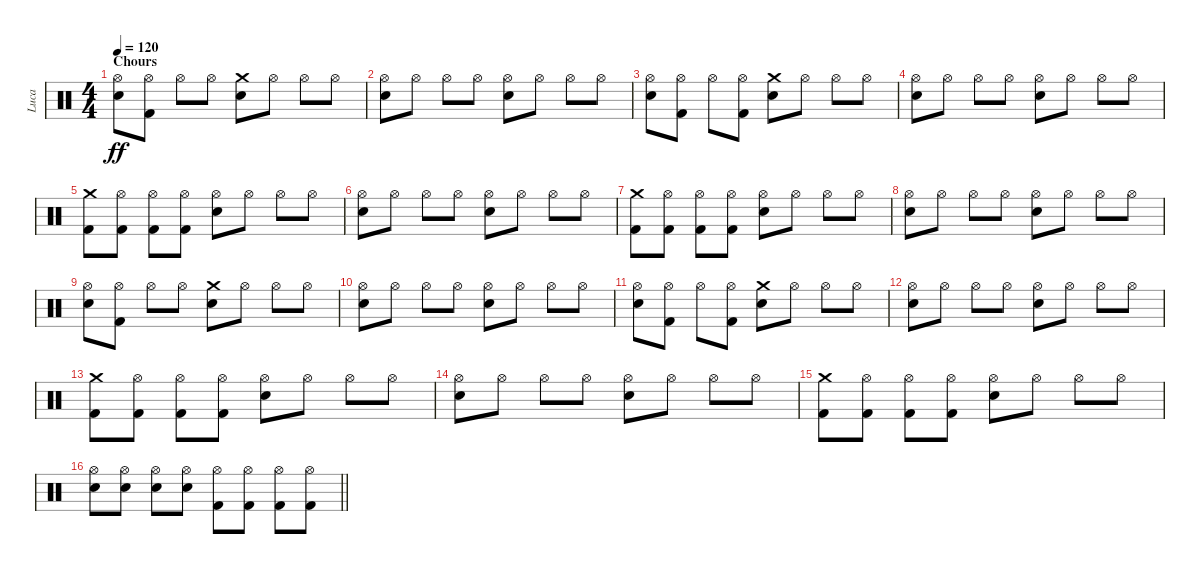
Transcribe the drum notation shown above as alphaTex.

\track ("Luca" "Luca") {instrument percussion}
\staff {score}
\articulation defaults
\ts (4 4)
\section ("" "Chours")
\tempo 120
\clef neutral
\ks c
("Hi-Hat (open)" "Snare (hit) 2").8{dy ff} ("Hi-Hat (open)" "Kick (hit) 2").8 "Hi-Hat (open)".8 "Hi-Hat (open)".8 ("Crash medium (hit)" "Snare (hit) 2").8 "Hi-Hat (open)".8 "Hi-Hat (open)".8 "Hi-Hat (open)".8 |
("Hi-Hat (open)" "Snare (hit) 2").8 "Hi-Hat (open)".8 "Hi-Hat (open)".8 "Hi-Hat (open)".8 ("Hi-Hat (open)" "Snare (hit) 2").8 "Hi-Hat (open)".8 "Hi-Hat (open)".8 "Hi-Hat (open)".8 |
("Hi-Hat (open)" "Snare (hit) 2").8 ("Hi-Hat (open)" "Kick (hit) 2").8 "Hi-Hat (open)".8 ("Hi-Hat (open)" "Kick (hit) 2").8 ("Crash medium (hit)" "Snare (hit) 2").8 "Hi-Hat (open)".8 "Hi-Hat (open)".8 "Hi-Hat (open)".8 |
("Hi-Hat (open)" "Snare (hit) 2").8 "Hi-Hat (open)".8 "Hi-Hat (open)".8 "Hi-Hat (open)".8 ("Hi-Hat (open)" "Snare (hit) 2").8 "Hi-Hat (open)".8 "Hi-Hat (open)".8 "Hi-Hat (open)".8 |
("Crash medium (hit)" "Kick (hit) 2").8 ("Hi-Hat (open)" "Kick (hit) 2").8 ("Hi-Hat (open)" "Kick (hit) 2").8 ("Hi-Hat (open)" "Kick (hit) 2").8 ("Hi-Hat (open)" "Snare (hit) 2").8 "Hi-Hat (open)".8 "Hi-Hat (open)".8 "Hi-Hat (open)".8 |
("Hi-Hat (open)" "Snare (hit) 2").8 "Hi-Hat (open)".8 "Hi-Hat (open)".8 "Hi-Hat (open)".8 ("Hi-Hat (open)" "Snare (hit) 2").8 "Hi-Hat (open)".8 "Hi-Hat (open)".8 "Hi-Hat (open)".8 |
("Crash medium (hit)" "Kick (hit) 2").8 ("Hi-Hat (open)" "Kick (hit) 2").8 ("Hi-Hat (open)" "Kick (hit) 2").8 ("Hi-Hat (open)" "Kick (hit) 2").8 ("Hi-Hat (open)" "Snare (hit) 2").8 "Hi-Hat (open)".8 "Hi-Hat (open)".8 "Hi-Hat (open)".8 |
("Hi-Hat (open)" "Snare (hit) 2").8 "Hi-Hat (open)".8 "Hi-Hat (open)".8 "Hi-Hat (open)".8 ("Hi-Hat (open)" "Snare (hit) 2").8 "Hi-Hat (open)".8 "Hi-Hat (open)".8 "Hi-Hat (open)".8 |
("Hi-Hat (open)" "Snare (hit) 2").8 ("Hi-Hat (open)" "Kick (hit) 2").8 "Hi-Hat (open)".8 "Hi-Hat (open)".8 ("Crash medium (hit)" "Snare (hit) 2").8 "Hi-Hat (open)".8 "Hi-Hat (open)".8 "Hi-Hat (open)".8 |
("Hi-Hat (open)" "Snare (hit) 2").8 "Hi-Hat (open)".8 "Hi-Hat (open)".8 "Hi-Hat (open)".8 ("Hi-Hat (open)" "Snare (hit) 2").8 "Hi-Hat (open)".8 "Hi-Hat (open)".8 "Hi-Hat (open)".8 |
("Hi-Hat (open)" "Snare (hit) 2").8 ("Hi-Hat (open)" "Kick (hit) 2").8 "Hi-Hat (open)".8 ("Hi-Hat (open)" "Kick (hit) 2").8 ("Crash medium (hit)" "Snare (hit) 2").8 "Hi-Hat (open)".8 "Hi-Hat (open)".8 "Hi-Hat (open)".8 |
("Hi-Hat (open)" "Snare (hit) 2").8 "Hi-Hat (open)".8 "Hi-Hat (open)".8 "Hi-Hat (open)".8 ("Hi-Hat (open)" "Snare (hit) 2").8 "Hi-Hat (open)".8 "Hi-Hat (open)".8 "Hi-Hat (open)".8 |
("Crash medium (hit)" "Kick (hit) 2").8 ("Hi-Hat (open)" "Kick (hit) 2").8 ("Hi-Hat (open)" "Kick (hit) 2").8 ("Hi-Hat (open)" "Kick (hit) 2").8 ("Hi-Hat (open)" "Snare (hit) 2").8 "Hi-Hat (open)".8 "Hi-Hat (open)".8 "Hi-Hat (open)".8 |
("Hi-Hat (open)" "Snare (hit) 2").8 "Hi-Hat (open)".8 "Hi-Hat (open)".8 "Hi-Hat (open)".8 ("Hi-Hat (open)" "Snare (hit) 2").8 "Hi-Hat (open)".8 "Hi-Hat (open)".8 "Hi-Hat (open)".8 |
("Crash medium (hit)" "Kick (hit) 2").8 ("Hi-Hat (open)" "Kick (hit) 2").8 ("Hi-Hat (open)" "Kick (hit) 2").8 ("Hi-Hat (open)" "Kick (hit) 2").8 ("Hi-Hat (open)" "Snare (hit) 2").8 "Hi-Hat (open)".8 "Hi-Hat (open)".8 "Hi-Hat (open)".8 |
\barLineRight lightlight
("Hi-Hat (open)" "Snare (hit) 2").8 ("Hi-Hat (open)" "Snare (hit) 2").8 ("Hi-Hat (open)" "Snare (hit) 2").8 ("Hi-Hat (open)" "Snare (hit) 2").8 ("Hi-Hat (open)" "Kick (hit) 2").8 ("Hi-Hat (open)" "Kick (hit) 2").8 ("Hi-Hat (open)" "Kick (hit) 2").8 ("Hi-Hat (open)" "Kick (hit) 2").8
